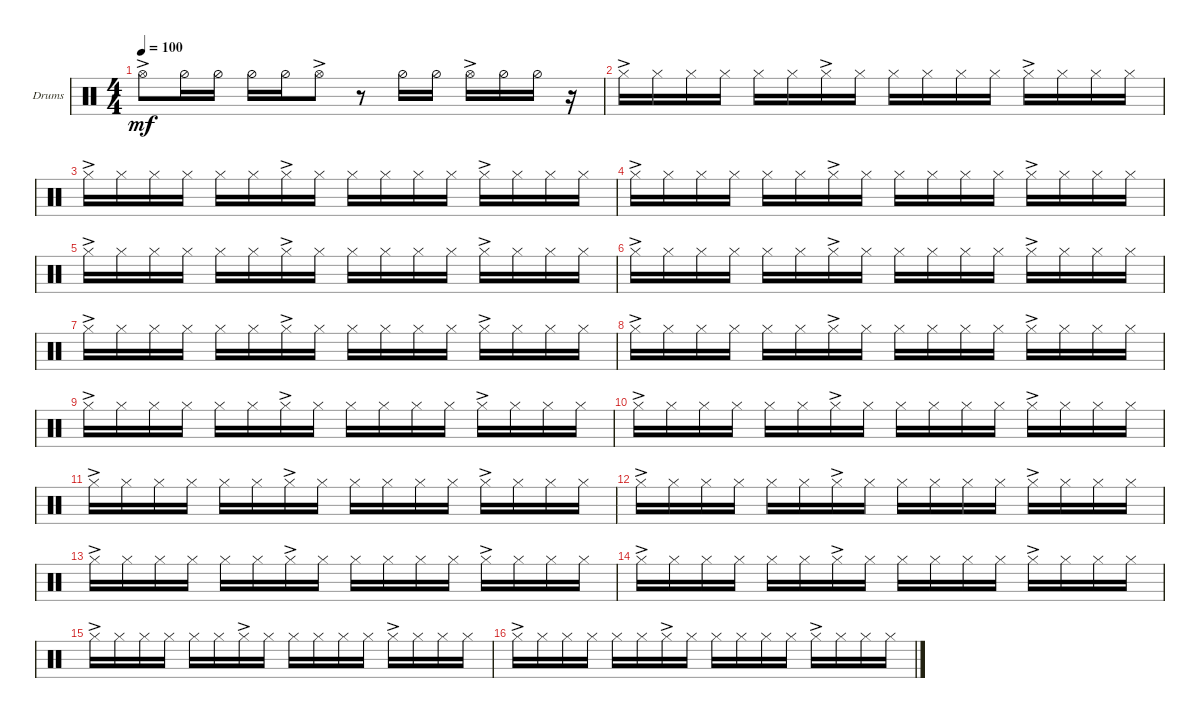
\defaultSystemsLayout 4
\bracketExtendMode groupsimilarinstruments
\firstSystemTrackNameOrientation horizontal
\otherSystemsTrackNameOrientation horizontal
\track ("Drumkit 2" "Drums") {instrument percussion}
\staff {score}
\articulation defaults
\ts (4 4)
\tempo 100
\clef neutral
\ks c "Hi-Hat (open)"{ac}.8{dy mf} "Hi-Hat (half)".16 "Hi-Hat (half)".16 "Hi-Hat (half)".16 "Hi-Hat (half)".16 "Hi-Hat (open)"{ac}.8
r.8 "Hi-Hat (half)".16 "Hi-Hat (half)".16 "Hi-Hat (open)"{ac}.16 "Hi-Hat (half)".16 "Hi-Hat (half)".16 r.16 |
"Hi-Hat (closed)"{ac}.16 "Hi-Hat (closed)".16 "Hi-Hat (closed)".16 "Hi-Hat (closed)".16 "Hi-Hat (closed)".16 "Hi-Hat (closed)".16 "Hi-Hat (closed)"{ac}.16 "Hi-Hat (closed)".16 "Hi-Hat (closed)".16 "Hi-Hat (closed)".16 "Hi-Hat (closed)".16 "Hi-Hat (closed)".16 "Hi-Hat (closed)"{ac}.16 "Hi-Hat (closed)".16 "Hi-Hat (closed)".16 "Hi-Hat (closed)".16 |
"Hi-Hat (closed)"{ac}.16 "Hi-Hat (closed)".16 "Hi-Hat (closed)".16 "Hi-Hat (closed)".16 "Hi-Hat (closed)".16 "Hi-Hat (closed)".16 "Hi-Hat (closed)"{ac}.16 "Hi-Hat (closed)".16 "Hi-Hat (closed)".16 "Hi-Hat (closed)".16 "Hi-Hat (closed)".16 "Hi-Hat (closed)".16 "Hi-Hat (closed)"{ac}.16 "Hi-Hat (closed)".16 "Hi-Hat (closed)".16 "Hi-Hat (closed)".16 |
"Hi-Hat (closed)"{ac}.16 "Hi-Hat (closed)".16 "Hi-Hat (closed)".16 "Hi-Hat (closed)".16 "Hi-Hat (closed)".16 "Hi-Hat (closed)".16 "Hi-Hat (closed)"{ac}.16 "Hi-Hat (closed)".16 "Hi-Hat (closed)".16 "Hi-Hat (closed)".16 "Hi-Hat (closed)".16 "Hi-Hat (closed)".16 "Hi-Hat (closed)"{ac}.16 "Hi-Hat (closed)".16 "Hi-Hat (closed)".16 "Hi-Hat (closed)".16 |
"Hi-Hat (closed)"{ac}.16 "Hi-Hat (closed)".16 "Hi-Hat (closed)".16 "Hi-Hat (closed)".16 "Hi-Hat (closed)".16 "Hi-Hat (closed)".16 "Hi-Hat (closed)"{ac}.16 "Hi-Hat (closed)".16 "Hi-Hat (closed)".16 "Hi-Hat (closed)".16 "Hi-Hat (closed)".16 "Hi-Hat (closed)".16 "Hi-Hat (closed)"{ac}.16 "Hi-Hat (closed)".16 "Hi-Hat (closed)".16 "Hi-Hat (closed)".16 |
"Hi-Hat (closed)"{ac}.16 "Hi-Hat (closed)".16 "Hi-Hat (closed)".16 "Hi-Hat (closed)".16 "Hi-Hat (closed)".16 "Hi-Hat (closed)".16 "Hi-Hat (closed)"{ac}.16 "Hi-Hat (closed)".16 "Hi-Hat (closed)".16 "Hi-Hat (closed)".16 "Hi-Hat (closed)".16 "Hi-Hat (closed)".16 "Hi-Hat (closed)"{ac}.16 "Hi-Hat (closed)".16 "Hi-Hat (closed)".16 "Hi-Hat (closed)".16 |
"Hi-Hat (closed)"{ac}.16 "Hi-Hat (closed)".16 "Hi-Hat (closed)".16 "Hi-Hat (closed)".16 "Hi-Hat (closed)".16 "Hi-Hat (closed)".16 "Hi-Hat (closed)"{ac}.16 "Hi-Hat (closed)".16 "Hi-Hat (closed)".16 "Hi-Hat (closed)".16 "Hi-Hat (closed)".16 "Hi-Hat (closed)".16 "Hi-Hat (closed)"{ac}.16 "Hi-Hat (closed)".16 "Hi-Hat (closed)".16 "Hi-Hat (closed)".16 |
"Hi-Hat (closed)"{ac}.16 "Hi-Hat (closed)".16 "Hi-Hat (closed)".16 "Hi-Hat (closed)".16 "Hi-Hat (closed)".16 "Hi-Hat (closed)".16 "Hi-Hat (closed)"{ac}.16 "Hi-Hat (closed)".16 "Hi-Hat (closed)".16 "Hi-Hat (closed)".16 "Hi-Hat (closed)".16 "Hi-Hat (closed)".16 "Hi-Hat (closed)"{ac}.16 "Hi-Hat (closed)".16 "Hi-Hat (closed)".16 "Hi-Hat (closed)".16 |
"Hi-Hat (closed)"{ac}.16 "Hi-Hat (closed)".16 "Hi-Hat (closed)".16 "Hi-Hat (closed)".16 "Hi-Hat (closed)".16 "Hi-Hat (closed)".16 "Hi-Hat (closed)"{ac}.16 "Hi-Hat (closed)".16 "Hi-Hat (closed)".16 "Hi-Hat (closed)".16 "Hi-Hat (closed)".16 "Hi-Hat (closed)".16 "Hi-Hat (closed)"{ac}.16 "Hi-Hat (closed)".16 "Hi-Hat (closed)".16 "Hi-Hat (closed)".16 |
"Hi-Hat (closed)"{ac}.16 "Hi-Hat (closed)".16 "Hi-Hat (closed)".16 "Hi-Hat (closed)".16 "Hi-Hat (closed)".16 "Hi-Hat (closed)".16 "Hi-Hat (closed)"{ac}.16 "Hi-Hat (closed)".16 "Hi-Hat (closed)".16 "Hi-Hat (closed)".16 "Hi-Hat (closed)".16 "Hi-Hat (closed)".16 "Hi-Hat (closed)"{ac}.16 "Hi-Hat (closed)".16 "Hi-Hat (closed)".16 "Hi-Hat (closed)".16 |
"Hi-Hat (closed)"{ac}.16 "Hi-Hat (closed)".16 "Hi-Hat (closed)".16 "Hi-Hat (closed)".16 "Hi-Hat (closed)".16 "Hi-Hat (closed)".16 "Hi-Hat (closed)"{ac}.16 "Hi-Hat (closed)".16 "Hi-Hat (closed)".16 "Hi-Hat (closed)".16 "Hi-Hat (closed)".16 "Hi-Hat (closed)".16 "Hi-Hat (closed)"{ac}.16 "Hi-Hat (closed)".16 "Hi-Hat (closed)".16 "Hi-Hat (closed)".16 |
"Hi-Hat (closed)"{ac}.16 "Hi-Hat (closed)".16 "Hi-Hat (closed)".16 "Hi-Hat (closed)".16 "Hi-Hat (closed)".16 "Hi-Hat (closed)".16 "Hi-Hat (closed)"{ac}.16 "Hi-Hat (closed)".16 "Hi-Hat (closed)".16 "Hi-Hat (closed)".16 "Hi-Hat (closed)".16 "Hi-Hat (closed)".16 "Hi-Hat (closed)"{ac}.16 "Hi-Hat (closed)".16 "Hi-Hat (closed)".16 "Hi-Hat (closed)".16 |
"Hi-Hat (closed)"{ac}.16 "Hi-Hat (closed)".16 "Hi-Hat (closed)".16 "Hi-Hat (closed)".16 "Hi-Hat (closed)".16 "Hi-Hat (closed)".16 "Hi-Hat (closed)"{ac}.16 "Hi-Hat (closed)".16 "Hi-Hat (closed)".16 "Hi-Hat (closed)".16 "Hi-Hat (closed)".16 "Hi-Hat (closed)".16 "Hi-Hat (closed)"{ac}.16 "Hi-Hat (closed)".16 "Hi-Hat (closed)".16 "Hi-Hat (closed)".16 |
"Hi-Hat (closed)"{ac}.16 "Hi-Hat (closed)".16 "Hi-Hat (closed)".16 "Hi-Hat (closed)".16 "Hi-Hat (closed)".16 "Hi-Hat (closed)".16 "Hi-Hat (closed)"{ac}.16 "Hi-Hat (closed)".16 "Hi-Hat (closed)".16 "Hi-Hat (closed)".16 "Hi-Hat (closed)".16 "Hi-Hat (closed)".16 "Hi-Hat (closed)"{ac}.16 "Hi-Hat (closed)".16 "Hi-Hat (closed)".16 "Hi-Hat (closed)".16 |
"Hi-Hat (closed)"{ac}.16 "Hi-Hat (closed)".16 "Hi-Hat (closed)".16 "Hi-Hat (closed)".16 "Hi-Hat (closed)".16 "Hi-Hat (closed)".16 "Hi-Hat (closed)"{ac}.16 "Hi-Hat (closed)".16 "Hi-Hat (closed)".16 "Hi-Hat (closed)".16 "Hi-Hat (closed)".16 "Hi-Hat (closed)".16 "Hi-Hat (closed)"{ac}.16 "Hi-Hat (closed)".16 "Hi-Hat (closed)".16 "Hi-Hat (closed)".16 |
"Hi-Hat (closed)"{ac}.16 "Hi-Hat (closed)".16 "Hi-Hat (closed)".16 "Hi-Hat (closed)".16 "Hi-Hat (closed)".16 "Hi-Hat (closed)".16 "Hi-Hat (closed)"{ac}.16 "Hi-Hat (closed)".16 "Hi-Hat (closed)".16 "Hi-Hat (closed)".16 "Hi-Hat (closed)".16 "Hi-Hat (closed)".16 "Hi-Hat (closed)"{ac}.16 "Hi-Hat (closed)".16 "Hi-Hat (closed)".16 "Hi-Hat (closed)".16
